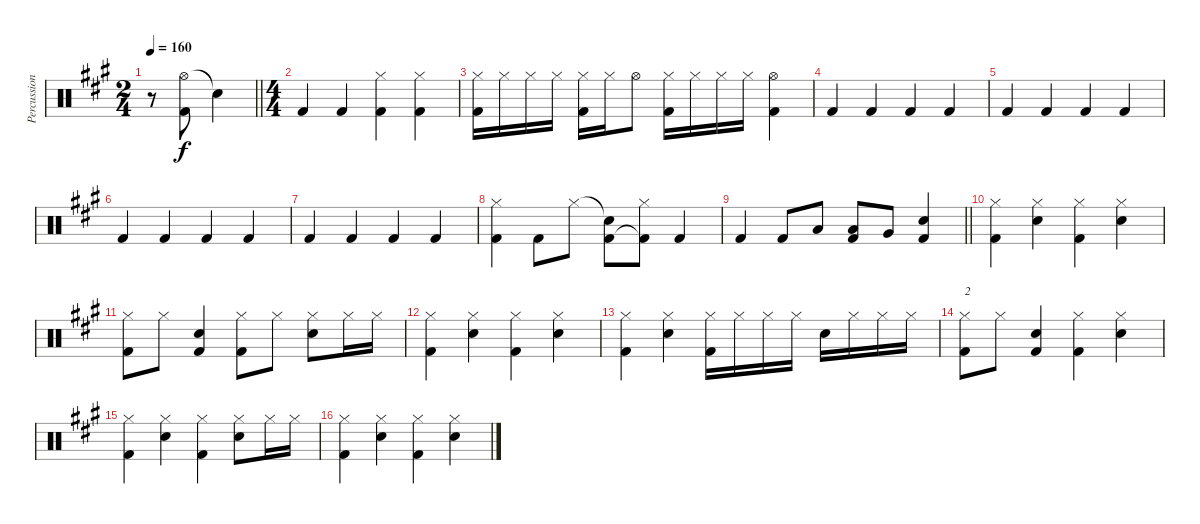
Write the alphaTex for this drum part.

\track ("Percussions" "Percussion") {instrument percussion}
\staff {score}
\articulation defaults
\ts (2 4)
\tempo 160
\clef neutral
\barLineRight lightlight
\ks a
r.8{dy f} ("Hi-Hat (open)" "Kick (hit) 2").8 "Snare (hit)"{t}.4 |
\ts (4 4)
"Kick (hit) 2".4 "Kick (hit) 2".4 ("Hi-Hat (closed)" "Kick (hit) 2").4 ("Hi-Hat (closed)" "Kick (hit) 2").4 |
("Hi-Hat (closed)" "Kick (hit) 2").16 "Hi-Hat (closed)".16 "Hi-Hat (closed)".16 "Hi-Hat (closed)".16 ("Hi-Hat (closed)" "Kick (hit) 2").16 "Hi-Hat (closed)".16 "Hi-Hat (open)".8 ("Hi-Hat (closed)" "Kick (hit) 2").16 "Hi-Hat (closed)".16 "Hi-Hat (closed)".16 "Hi-Hat (closed)".16 ("Hi-Hat (open)" "Kick (hit) 2").4 |
"Kick (hit) 2".4 "Kick (hit) 2".4 "Kick (hit) 2".4 "Kick (hit) 2".4 |
"Kick (hit) 2".4 "Kick (hit) 2".4 "Kick (hit) 2".4 "Kick (hit) 2".4 |
"Kick (hit) 2".4 "Kick (hit) 2".4 "Kick (hit) 2".4 "Kick (hit) 2".4 |
"Kick (hit) 2".4 "Kick (hit) 2".4 "Kick (hit) 2".4 "Kick (hit) 2".4 |
("Hi-Hat (closed)" "Kick (hit) 2").4 "Kick (hit) 2".8 "Hi-Hat (closed)".8 ("Snare (hit)"{t} "Kick (hit) 2").8 ("Hi-Hat (closed)" "Kick (hit) 2"{t}).8 "Kick (hit) 2".4 |
\barLineRight lightlight "Kick (hit) 2".4 "Kick (hit) 2".8 "Low Tom (hit)".8
("Kick (hit) 2" "Low Tom (hit)").8 "Very Low Tom (hit)".8 ("Snare (hit) 2" "Kick (hit) 2").4 |
("Hi-Hat (closed)" "Kick (hit) 2").4 ("Hi-Hat (closed)" "Snare (hit) 2").4 ("Hi-Hat (closed)" "Kick (hit) 2").4 ("Hi-Hat (closed)" "Snare (hit) 2").4 |
("Hi-Hat (closed)" "Kick (hit) 2").8 "Hi-Hat (closed)".8 ("Snare (hit) 2" "Kick (hit) 2").4 ("Hi-Hat (closed)" "Kick (hit) 2").8 "Hi-Hat (closed)".8 ("Hi-Hat (closed)" "Snare (hit) 2").8 "Hi-Hat (closed)".16 "Hi-Hat (closed)".16 |
("Hi-Hat (closed)" "Kick (hit) 2").4 ("Hi-Hat (closed)" "Snare (hit) 2").4 ("Hi-Hat (closed)" "Kick (hit) 2").4 ("Hi-Hat (closed)" "Snare (hit) 2").4 |
("Hi-Hat (closed)" "Kick (hit) 2").4 ("Hi-Hat (closed)" "Snare (hit) 2").4 ("Hi-Hat (closed)" "Kick (hit) 2").16 "Hi-Hat (closed)".16 "Hi-Hat (closed)".16 "Hi-Hat (closed)".16 "Snare (hit) 2".16 "Hi-Hat (closed)".16 "Hi-Hat (closed)".16 "Hi-Hat (closed)".16 |
("Hi-Hat (closed)" "Kick (hit) 2").8{txt "2"} "Hi-Hat (closed)".8 ("Snare (hit) 2" "Kick (hit) 2").4 ("Hi-Hat (closed)" "Kick (hit) 2").4 ("Hi-Hat (closed)" "Snare (hit) 2").4 |
("Hi-Hat (closed)" "Kick (hit) 2").4 ("Hi-Hat (closed)" "Snare (hit) 2").4 ("Hi-Hat (closed)" "Kick (hit) 2").4 ("Hi-Hat (closed)" "Snare (hit) 2").8 "Hi-Hat (closed)".16 "Hi-Hat (closed)".16 |
("Hi-Hat (closed)" "Kick (hit) 2").4 ("Hi-Hat (closed)" "Snare (hit) 2").4 ("Hi-Hat (closed)" "Kick (hit) 2").4 ("Hi-Hat (closed)" "Snare (hit) 2").4
